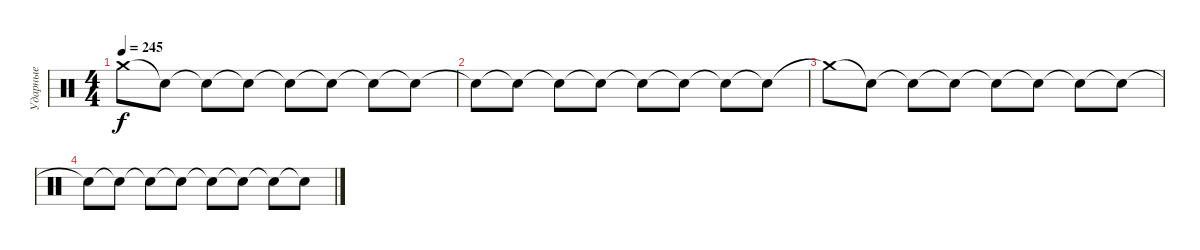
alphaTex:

\track ("Ударные" "Ударные") {instrument percussion}
\staff {score}
\articulation defaults
\ts (4 4)
\tempo 245
\clef neutral
\ks c "Crash medium (hit)".8{dy f} "Snare (hit)"{t}.8 "Snare (hit)"{t}.8 "Snare (hit)"{t}.8 "Snare (hit)"{t}.8 "Snare (hit)"{t}.8 "Snare (hit)"{t}.8 "Snare (hit)"{t}.8
|
"Snare (hit)"{t}.8 "Snare (hit)"{t}.8 "Snare (hit)"{t}.8 "Snare (hit)"{t}.8 "Snare (hit)"{t}.8 "Snare (hit)"{t}.8 "Snare (hit)"{t}.8 "Snare (hit)"{t}.8 |
"Crash medium (hit)"{t}.8 "Snare (hit)"{t}.8 "Snare (hit)"{t}.8 "Snare (hit)"{t}.8 "Snare (hit)"{t}.8 "Snare (hit)"{t}.8 "Snare (hit)"{t}.8 "Snare (hit)"{t}.8 |
"Snare (hit)"{t}.8 "Snare (hit)"{t}.8 "Snare (hit)"{t}.8 "Snare (hit)"{t}.8 "Snare (hit)"{t}.8 "Snare (hit)"{t}.8 "Snare (hit)"{t}.8 "Snare (hit)"{t}.8
